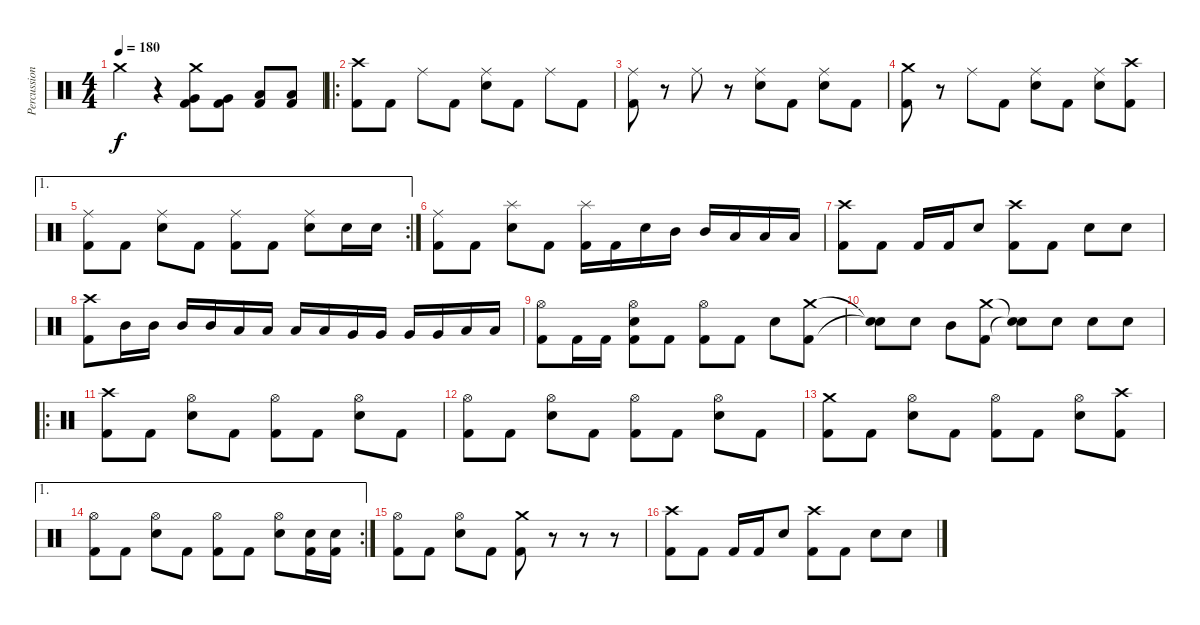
\track ("Percussion" "Percussion") {instrument percussion}
\staff {score}
\articulation defaults
\ts (4 4)
\tempo 180
\clef neutral
\ks c "Crash medium (hit)".4{dy f}
r.4 ("Crash medium (hit)" "Very Low Tom (hit)" "Kick (hit) 2").8 ("Very Low Tom (hit)" "Kick (hit) 2").8 ("Low Floor Tom (hit)" "Kick (hit) 2").8 ("Low Floor Tom (hit)" "Kick (hit) 2").8 |
\ro
("Crash high (hit)" "Kick (hit) 2").8 "Kick (hit) 2".8 "Ride (middle)".8 "Kick (hit) 2".8 ("Ride (middle)" "Electric Snare (hit)").8 "Kick (hit) 2".8 "Ride (middle)".8 "Kick (hit) 2".8 |
("Ride (middle)" "Kick (hit) 2").8 r.8 "Ride (middle)".8 r.8 ("Ride (middle)" "Electric Snare (hit)").8 "Kick (hit) 2".8 ("Ride (middle)" "Electric Snare (hit)").8 "Kick (hit) 2".8 |
("Crash medium (hit)" "Kick (hit) 2").8 r.8 "Ride (middle)".8 "Kick (hit) 2".8 ("Ride (middle)" "Electric Snare (hit)").8 "Kick (hit) 2".8 ("Ride (middle)" "Electric Snare (hit)").8 ("Crash high (hit)" "Kick (hit) 2").8 |
\ae 1
\rc 2
("Ride (middle)" "Kick (hit) 2").8 "Kick (hit) 2".8 ("Ride (middle)" "Electric Snare (hit)").8 "Kick (hit) 2".8 ("Ride (middle)" "Kick (hit) 2").8 "Kick (hit) 2".8 ("Ride (middle)" "Electric Snare (hit)").8 "Electric Snare (hit)".16 "Electric Snare (hit)".16 |
("Ride (middle)" "Kick (hit) 2").8 "Kick (hit) 2".8 ("Splash (hit)" "Electric Snare (hit)").8 "Kick (hit) 2".8 ("Splash (hit)" "Kick (hit) 2").16 "Kick (hit) 2".16 "Electric Snare (hit)".16 "Mid Tom (hit)".16 "Mid Tom (hit)".16 "Low Tom (hit)".16 "Low Tom (hit)".16 "Low Tom (hit)".16 |
("Crash high (hit)" "Kick (hit) 2").8 "Kick (hit) 2".8 "Kick (hit) 2".16 "Kick (hit) 2".16 "Electric Snare (hit)".8 ("Crash high (hit)" "Kick (hit) 2").8 "Kick (hit) 2".8 "Electric Snare (hit)".8 "Electric Snare (hit)".8 |
("Crash high (hit)" "Kick (hit) 2").8 "Mid Tom (hit)".16 "Mid Tom (hit)".16 "Mid Tom (hit)".16 "Mid Tom (hit)".16 "Low Tom (hit)".16 "Low Tom (hit)".16 "Low Tom (hit)".16 "Low Tom (hit)".16 "Very Low Tom (hit)".16 "Very Low Tom (hit)".16 "Very Low Tom (hit)".16 "Very Low Tom (hit)".16 "Low Floor Tom (hit)".16 "Low Floor Tom (hit)".16 |
("Hi-Hat (open)" "Kick (hit) 2").8 "Kick (hit) 2".16 "Kick (hit) 2".16 ("Hi-Hat (open)" "Electric Snare (hit)" "Kick (hit) 2").8 "Kick (hit) 2".8 ("Hi-Hat (open)" "Kick (hit) 2").8 "Kick (hit) 2".8 "Electric Snare (hit)".8 ("Crash medium (hit)" "Kick (hit) 2").8 |
("Snare (hit)"{t} "Snare (hit)"{t}).8 "Electric Snare (hit)".8 "Mid Tom (hit)".8 ("Crash medium (hit)" "Kick (hit) 2").8 ("Snare (hit)"{t} "Snare (hit)"{t}).8 "Electric Snare (hit)".8 "Electric Snare (hit)".8 "Electric Snare (hit)".8 |
\ro
("Crash high (hit)" "Kick (hit) 2").8 "Kick (hit) 2".8 ("Hi-Hat (open)" "Electric Snare (hit)").8 "Kick (hit) 2".8 ("Hi-Hat (open)" "Kick (hit) 2").8 "Kick (hit) 2".8 ("Hi-Hat (open)" "Electric Snare (hit)").8 "Kick (hit) 2".8 |
("Hi-Hat (open)" "Kick (hit) 2").8 "Kick (hit) 2".8 ("Hi-Hat (open)" "Electric Snare (hit)").8 "Kick (hit) 2".8 ("Hi-Hat (open)" "Kick (hit) 2").8 "Kick (hit) 2".8 ("Hi-Hat (open)" "Electric Snare (hit)").8 "Kick (hit) 2".8 |
("Crash medium (hit)" "Kick (hit) 2").8 "Kick (hit) 2".8 ("Hi-Hat (open)" "Electric Snare (hit)").8 "Kick (hit) 2".8 ("Hi-Hat (open)" "Kick (hit) 2").8 "Kick (hit) 2".8 ("Hi-Hat (open)" "Electric Snare (hit)").8 ("Crash high (hit)" "Kick (hit) 2").8 |
\ae 1
\rc 2
("Hi-Hat (open)" "Kick (hit) 2").8 "Kick (hit) 2".8 ("Hi-Hat (open)" "Electric Snare (hit)").8 "Kick (hit) 2".8 ("Hi-Hat (open)" "Kick (hit) 2").8 "Kick (hit) 2".8 ("Hi-Hat (open)" "Electric Snare (hit)").8 ("Electric Snare (hit)" "Kick (hit) 2").16 ("Electric Snare (hit)" "Kick (hit) 2").16 |
("Hi-Hat (open)" "Kick (hit) 2").8 "Kick (hit) 2".8 ("Hi-Hat (open)" "Electric Snare (hit)").8 "Kick (hit) 2".8 ("Crash medium (hit)" "Kick (hit) 2").8 r.8 r.8 r.8 |
("Crash high (hit)" "Kick (hit) 2").8 "Kick (hit) 2".8 "Kick (hit) 2".16 "Kick (hit) 2".16 "Electric Snare (hit)".8 ("Crash high (hit)" "Kick (hit) 2").8 "Kick (hit) 2".8 "Electric Snare (hit)".8 "Electric Snare (hit)".8
